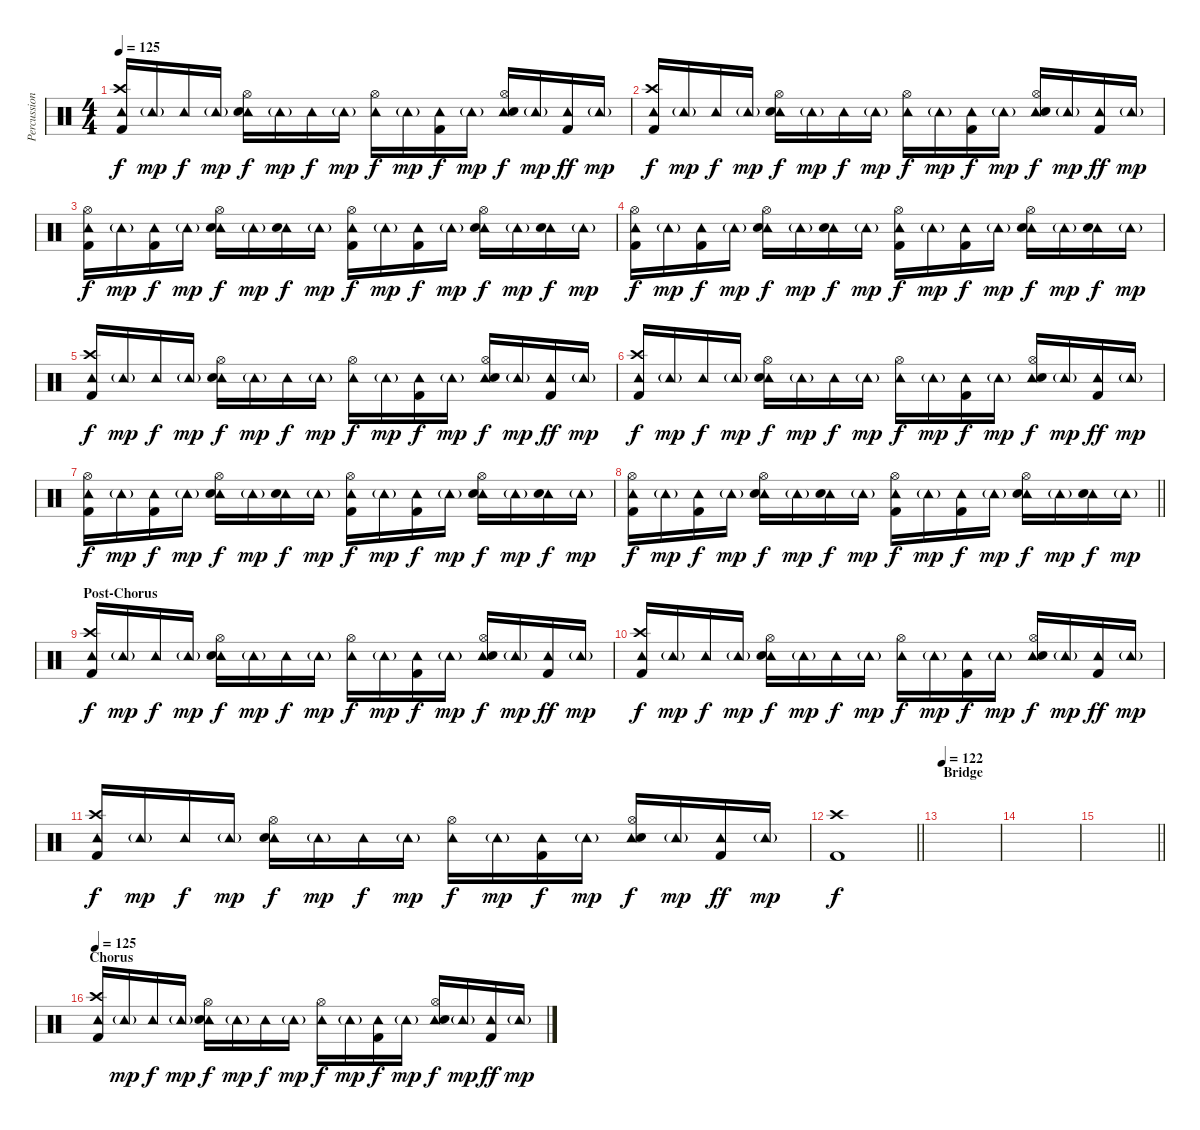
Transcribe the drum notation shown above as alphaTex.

\track ("Percussion" "Percussion") {instrument percussion}
\staff {score}
\articulation defaults
\ts (4 4)
\tempo 125
\clef neutral
\ks c
("Tambourine (hit)" "Crash high (hit)" "Kick (hit) 2").16{dy f} "Tambourine (hit)"{g}.16{dy mp} "Tambourine (hit)".16{dy f} "Tambourine (hit)"{g}.16{dy mp} ("Tambourine (hit)" "Hi-Hat (open)" "Electric Snare (hit)").16{dy f} "Tambourine (hit)"{g}.16{dy mp} "Tambourine (hit)".16{dy f} "Tambourine (hit)"{g}.16{dy mp} ("Tambourine (hit)" "Hi-Hat (open)").16{dy f} "Tambourine (hit)"{g}.16{dy mp} ("Tambourine (hit)" "Kick (hit) 2").16{dy f} "Tambourine (hit)"{g}.16{dy mp} ("Tambourine (hit)" "Hi-Hat (open)" "Electric Snare (hit)").16{dy f} "Tambourine (hit)"{g}.16{dy mp} ("Tambourine (hit)" "Kick (hit) 2").16{dy ff} "Tambourine (hit)"{g}.16{dy mp} |
("Tambourine (hit)" "Crash high (hit)" "Kick (hit) 2").16{dy f} "Tambourine (hit)"{g}.16{dy mp} "Tambourine (hit)".16{dy f} "Tambourine (hit)"{g}.16{dy mp} ("Tambourine (hit)" "Hi-Hat (open)" "Electric Snare (hit)").16{dy f} "Tambourine (hit)"{g}.16{dy mp} "Tambourine (hit)".16{dy f} "Tambourine (hit)"{g}.16{dy mp} ("Tambourine (hit)" "Hi-Hat (open)").16{dy f} "Tambourine (hit)"{g}.16{dy mp} ("Tambourine (hit)" "Kick (hit) 2").16{dy f} "Tambourine (hit)"{g}.16{dy mp} ("Tambourine (hit)" "Hi-Hat (open)" "Electric Snare (hit)").16{dy f} "Tambourine (hit)"{g}.16{dy mp} ("Tambourine (hit)" "Kick (hit) 2").16{dy ff} "Tambourine (hit)"{g}.16{dy mp} |
("Tambourine (hit)" "Hi-Hat (open)" "Kick (hit) 2").16{dy f} "Tambourine (hit)"{g}.16{dy mp} ("Tambourine (hit)" "Kick (hit) 2").16{dy f} "Tambourine (hit)"{g}.16{dy mp} ("Tambourine (hit)" "Hi-Hat (open)" "Electric Snare (hit)").16{dy f} "Tambourine (hit)"{g}.16{dy mp} ("Tambourine (hit)" "Electric Snare (hit)").16{dy f} "Tambourine (hit)"{g}.16{dy mp} ("Tambourine (hit)" "Hi-Hat (open)" "Kick (hit) 2").16{dy f} "Tambourine (hit)"{g}.16{dy mp} ("Tambourine (hit)" "Kick (hit) 2").16{dy f} "Tambourine (hit)"{g}.16{dy mp} ("Tambourine (hit)" "Hi-Hat (open)" "Electric Snare (hit)").16{dy f} "Tambourine (hit)"{g}.16{dy mp} ("Tambourine (hit)" "Electric Snare (hit)").16{dy f} "Tambourine (hit)"{g}.16{dy mp} |
("Tambourine (hit)" "Hi-Hat (open)" "Kick (hit) 2").16{dy f} "Tambourine (hit)"{g}.16{dy mp} ("Tambourine (hit)" "Kick (hit) 2").16{dy f} "Tambourine (hit)"{g}.16{dy mp} ("Tambourine (hit)" "Hi-Hat (open)" "Electric Snare (hit)").16{dy f} "Tambourine (hit)"{g}.16{dy mp} ("Tambourine (hit)" "Electric Snare (hit)").16{dy f} "Tambourine (hit)"{g}.16{dy mp} ("Tambourine (hit)" "Hi-Hat (open)" "Kick (hit) 2").16{dy f} "Tambourine (hit)"{g}.16{dy mp} ("Tambourine (hit)" "Kick (hit) 2").16{dy f} "Tambourine (hit)"{g}.16{dy mp} ("Tambourine (hit)" "Hi-Hat (open)" "Electric Snare (hit)").16{dy f} "Tambourine (hit)"{g}.16{dy mp} ("Tambourine (hit)" "Electric Snare (hit)").16{dy f} "Tambourine (hit)"{g}.16{dy mp} |
("Tambourine (hit)" "Crash high (hit)" "Kick (hit) 2").16{dy f} "Tambourine (hit)"{g}.16{dy mp} "Tambourine (hit)".16{dy f} "Tambourine (hit)"{g}.16{dy mp} ("Tambourine (hit)" "Hi-Hat (open)" "Electric Snare (hit)").16{dy f} "Tambourine (hit)"{g}.16{dy mp} "Tambourine (hit)".16{dy f} "Tambourine (hit)"{g}.16{dy mp} ("Tambourine (hit)" "Hi-Hat (open)").16{dy f} "Tambourine (hit)"{g}.16{dy mp} ("Tambourine (hit)" "Kick (hit) 2").16{dy f} "Tambourine (hit)"{g}.16{dy mp} ("Tambourine (hit)" "Hi-Hat (open)" "Electric Snare (hit)").16{dy f} "Tambourine (hit)"{g}.16{dy mp} ("Tambourine (hit)" "Kick (hit) 2").16{dy ff} "Tambourine (hit)"{g}.16{dy mp} |
("Tambourine (hit)" "Crash high (hit)" "Kick (hit) 2").16{dy f} "Tambourine (hit)"{g}.16{dy mp} "Tambourine (hit)".16{dy f} "Tambourine (hit)"{g}.16{dy mp} ("Tambourine (hit)" "Hi-Hat (open)" "Electric Snare (hit)").16{dy f} "Tambourine (hit)"{g}.16{dy mp} "Tambourine (hit)".16{dy f} "Tambourine (hit)"{g}.16{dy mp} ("Tambourine (hit)" "Hi-Hat (open)").16{dy f} "Tambourine (hit)"{g}.16{dy mp} ("Tambourine (hit)" "Kick (hit) 2").16{dy f} "Tambourine (hit)"{g}.16{dy mp} ("Tambourine (hit)" "Hi-Hat (open)" "Electric Snare (hit)").16{dy f} "Tambourine (hit)"{g}.16{dy mp} ("Tambourine (hit)" "Kick (hit) 2").16{dy ff} "Tambourine (hit)"{g}.16{dy mp} |
("Tambourine (hit)" "Hi-Hat (open)" "Kick (hit) 2").16{dy f} "Tambourine (hit)"{g}.16{dy mp} ("Tambourine (hit)" "Kick (hit) 2").16{dy f} "Tambourine (hit)"{g}.16{dy mp} ("Tambourine (hit)" "Hi-Hat (open)" "Electric Snare (hit)").16{dy f} "Tambourine (hit)"{g}.16{dy mp} ("Tambourine (hit)" "Electric Snare (hit)").16{dy f} "Tambourine (hit)"{g}.16{dy mp} ("Tambourine (hit)" "Hi-Hat (open)" "Kick (hit) 2").16{dy f} "Tambourine (hit)"{g}.16{dy mp} ("Tambourine (hit)" "Kick (hit) 2").16{dy f} "Tambourine (hit)"{g}.16{dy mp} ("Tambourine (hit)" "Hi-Hat (open)" "Electric Snare (hit)").16{dy f} "Tambourine (hit)"{g}.16{dy mp} ("Tambourine (hit)" "Electric Snare (hit)").16{dy f} "Tambourine (hit)"{g}.16{dy mp} |
\barLineRight lightlight
("Tambourine (hit)" "Hi-Hat (open)" "Kick (hit) 2").16{dy f} "Tambourine (hit)"{g}.16{dy mp} ("Tambourine (hit)" "Kick (hit) 2").16{dy f} "Tambourine (hit)"{g}.16{dy mp} ("Tambourine (hit)" "Hi-Hat (open)" "Electric Snare (hit)").16{dy f} "Tambourine (hit)"{g}.16{dy mp} ("Tambourine (hit)" "Electric Snare (hit)").16{dy f} "Tambourine (hit)"{g}.16{dy mp} ("Tambourine (hit)" "Hi-Hat (open)" "Kick (hit) 2").16{dy f} "Tambourine (hit)"{g}.16{dy mp} ("Tambourine (hit)" "Kick (hit) 2").16{dy f} "Tambourine (hit)"{g}.16{dy mp} ("Tambourine (hit)" "Hi-Hat (open)" "Electric Snare (hit)").16{dy f} "Tambourine (hit)"{g}.16{dy mp} ("Tambourine (hit)" "Electric Snare (hit)").16{dy f} "Tambourine (hit)"{g}.16{dy mp} |
\section ("" "Post-Chorus")
("Tambourine (hit)" "Crash high (hit)" "Kick (hit) 2").16{dy f} "Tambourine (hit)"{g}.16{dy mp} "Tambourine (hit)".16{dy f} "Tambourine (hit)"{g}.16{dy mp} ("Tambourine (hit)" "Hi-Hat (open)" "Electric Snare (hit)").16{dy f} "Tambourine (hit)"{g}.16{dy mp} "Tambourine (hit)".16{dy f} "Tambourine (hit)"{g}.16{dy mp} ("Tambourine (hit)" "Hi-Hat (open)").16{dy f} "Tambourine (hit)"{g}.16{dy mp} ("Tambourine (hit)" "Kick (hit) 2").16{dy f} "Tambourine (hit)"{g}.16{dy mp} ("Tambourine (hit)" "Hi-Hat (open)" "Electric Snare (hit)").16{dy f} "Tambourine (hit)"{g}.16{dy mp} ("Tambourine (hit)" "Kick (hit) 2").16{dy ff} "Tambourine (hit)"{g}.16{dy mp} |
("Tambourine (hit)" "Crash high (hit)" "Kick (hit) 2").16{dy f} "Tambourine (hit)"{g}.16{dy mp} "Tambourine (hit)".16{dy f} "Tambourine (hit)"{g}.16{dy mp} ("Tambourine (hit)" "Hi-Hat (open)" "Electric Snare (hit)").16{dy f} "Tambourine (hit)"{g}.16{dy mp} "Tambourine (hit)".16{dy f} "Tambourine (hit)"{g}.16{dy mp} ("Tambourine (hit)" "Hi-Hat (open)").16{dy f} "Tambourine (hit)"{g}.16{dy mp} ("Tambourine (hit)" "Kick (hit) 2").16{dy f} "Tambourine (hit)"{g}.16{dy mp} ("Tambourine (hit)" "Hi-Hat (open)" "Electric Snare (hit)").16{dy f} "Tambourine (hit)"{g}.16{dy mp} ("Tambourine (hit)" "Kick (hit) 2").16{dy ff} "Tambourine (hit)"{g}.16{dy mp} |
("Tambourine (hit)" "Crash high (hit)" "Kick (hit) 2").16{dy f} "Tambourine (hit)"{g}.16{dy mp} "Tambourine (hit)".16{dy f} "Tambourine (hit)"{g}.16{dy mp} ("Tambourine (hit)" "Hi-Hat (open)" "Electric Snare (hit)").16{dy f} "Tambourine (hit)"{g}.16{dy mp} "Tambourine (hit)".16{dy f} "Tambourine (hit)"{g}.16{dy mp} ("Tambourine (hit)" "Hi-Hat (open)").16{dy f} "Tambourine (hit)"{g}.16{dy mp} ("Tambourine (hit)" "Kick (hit) 2").16{dy f} "Tambourine (hit)"{g}.16{dy mp} ("Tambourine (hit)" "Hi-Hat (open)" "Electric Snare (hit)").16{dy f} "Tambourine (hit)"{g}.16{dy mp} ("Tambourine (hit)" "Kick (hit) 2").16{dy ff} "Tambourine (hit)"{g}.16{dy mp} |
\barLineRight lightlight
("Crash high (hit)" "Kick (hit) 2").1{dy f} |
\section ("" "Bridge")
\tempo 122
|
|
\barLineRight lightlight
|
\section ("" "Chorus")
\tempo 125
("Tambourine (hit)" "Crash high (hit)" "Kick (hit) 2").16 "Tambourine (hit)"{g}.16{dy mp} "Tambourine (hit)".16{dy f} "Tambourine (hit)"{g}.16{dy mp} ("Tambourine (hit)" "Hi-Hat (open)" "Electric Snare (hit)").16{dy f} "Tambourine (hit)"{g}.16{dy mp} "Tambourine (hit)".16{dy f} "Tambourine (hit)"{g}.16{dy mp} ("Tambourine (hit)" "Hi-Hat (open)").16{dy f} "Tambourine (hit)"{g}.16{dy mp} ("Tambourine (hit)" "Kick (hit) 2").16{dy f} "Tambourine (hit)"{g}.16{dy mp} ("Tambourine (hit)" "Hi-Hat (open)" "Electric Snare (hit)").16{dy f} "Tambourine (hit)"{g}.16{dy mp} ("Tambourine (hit)" "Kick (hit) 2").16{dy ff} "Tambourine (hit)"{g}.16{dy mp}
